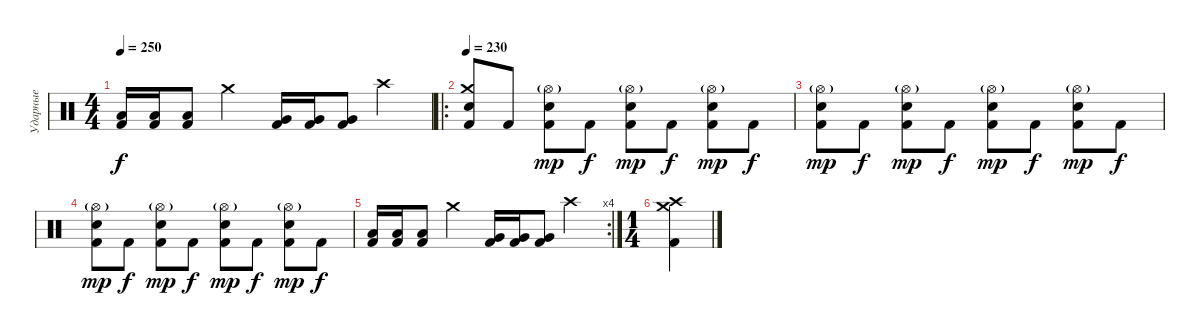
\track ("Ударные" "Ударные") {instrument percussion}
\staff {score}
\articulation defaults
\ts (4 4)
\tempo 250
\clef neutral
\ks c
("Low Tom (hit)" "Kick (hit) 2").16{dy f} ("Low Tom (hit)" "Kick (hit) 2").16 ("Low Tom (hit)" "Kick (hit) 2").8 "Crash medium (hit)".4 ("Very Low Tom (hit)" "Kick (hit) 2").16 ("Very Low Tom (hit)" "Kick (hit) 2").16 ("Very Low Tom (hit)" "Kick (hit) 2").8 "Crash high (hit)".4 |
\ro
\tempo 230
("Electric Snare (hit)" "Crash medium (hit)" "Kick (hit) 2").8 "Kick (hit) 2".8 ("Electric Snare (hit)" "Hi-Hat (open)"{g} "Kick (hit) 2").8{dy mp} "Kick (hit) 2".8{dy f} ("Electric Snare (hit)" "Hi-Hat (open)"{g} "Kick (hit) 2").8{dy mp} "Kick (hit) 2".8{dy f} ("Electric Snare (hit)" "Hi-Hat (open)"{g} "Kick (hit) 2").8{dy mp} "Kick (hit) 2".8{dy f} |
("Electric Snare (hit)" "Hi-Hat (open)"{g} "Kick (hit) 2").8{dy mp} "Kick (hit) 2".8{dy f} ("Electric Snare (hit)" "Hi-Hat (open)"{g} "Kick (hit) 2").8{dy mp} "Kick (hit) 2".8{dy f} ("Electric Snare (hit)" "Hi-Hat (open)"{g} "Kick (hit) 2").8{dy mp} "Kick (hit) 2".8{dy f} ("Electric Snare (hit)" "Hi-Hat (open)"{g} "Kick (hit) 2").8{dy mp} "Kick (hit) 2".8{dy f} |
("Electric Snare (hit)" "Hi-Hat (open)"{g} "Kick (hit) 2").8{dy mp} "Kick (hit) 2".8{dy f} ("Electric Snare (hit)" "Hi-Hat (open)"{g} "Kick (hit) 2").8{dy mp} "Kick (hit) 2".8{dy f} ("Electric Snare (hit)" "Hi-Hat (open)"{g} "Kick (hit) 2").8{dy mp} "Kick (hit) 2".8{dy f} ("Electric Snare (hit)" "Hi-Hat (open)"{g} "Kick (hit) 2").8{dy mp} "Kick (hit) 2".8{dy f} |
\rc 4
("Low Tom (hit)" "Kick (hit) 2").16 ("Low Tom (hit)" "Kick (hit) 2").16 ("Low Tom (hit)" "Kick (hit) 2").8 "Crash medium (hit)".4 ("Very Low Tom (hit)" "Kick (hit) 2").16 ("Very Low Tom (hit)" "Kick (hit) 2").16 ("Very Low Tom (hit)" "Kick (hit) 2").8 "Crash high (hit)".4 |
\ts (1 4)
("Crash high (hit)" "Crash medium (hit)" "Kick (hit) 2").4
